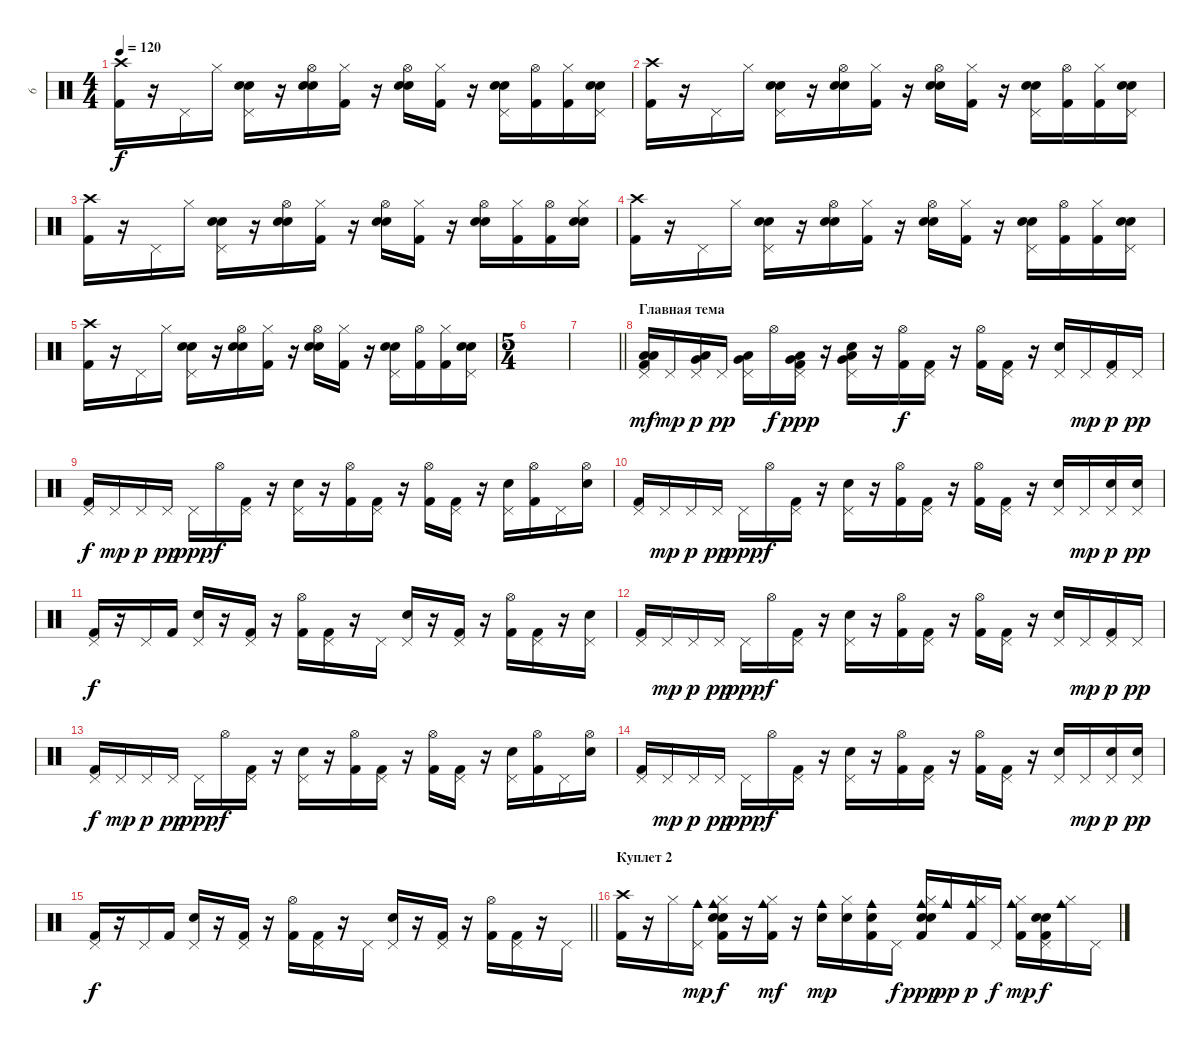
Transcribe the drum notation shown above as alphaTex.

\track ("6" "6") {instrument percussion}
\staff {score}
\articulation defaults
\ts (4 4)
\tempo 120
\clef neutral
\ks c
("Crash high (hit)" "Kick (hit) 2").16{dy f} r.16 "Pedal Hi-Hat (hit)".16 "Hi-Hat (closed)".16 ("Pedal Hi-Hat (hit)" "Snare (hit)" "Snare (hit) 2").16 r.16 ("Hi-Hat (open)" "Snare (hit)" "Snare (hit) 2").16 ("Hi-Hat (closed)" "Kick (hit) 2").16 r.16 ("Hi-Hat (open)" "Snare (hit)" "Snare (hit) 2").16 ("Hi-Hat (closed)" "Kick (hit) 2").16 r.16 ("Pedal Hi-Hat (hit)" "Snare (hit)" "Snare (hit) 2").16 ("Hi-Hat (open)" "Kick (hit) 2").16 ("Hi-Hat (closed)" "Kick (hit) 2").16 ("Pedal Hi-Hat (hit)" "Snare (hit)" "Snare (hit) 2").16 |
("Crash high (hit)" "Kick (hit) 2").16 r.16 "Pedal Hi-Hat (hit)".16 "Hi-Hat (closed)".16 ("Pedal Hi-Hat (hit)" "Snare (hit)" "Snare (hit) 2").16 r.16 ("Hi-Hat (open)" "Snare (hit)" "Snare (hit) 2").16 ("Hi-Hat (closed)" "Kick (hit) 2").16 r.16 ("Hi-Hat (open)" "Snare (hit)" "Snare (hit) 2").16 ("Hi-Hat (closed)" "Kick (hit) 2").16 r.16 ("Pedal Hi-Hat (hit)" "Snare (hit)" "Snare (hit) 2").16 ("Hi-Hat (open)" "Kick (hit) 2").16 ("Hi-Hat (closed)" "Kick (hit) 2").16 ("Pedal Hi-Hat (hit)" "Snare (hit)" "Snare (hit) 2").16 |
("Crash high (hit)" "Kick (hit) 2").16 r.16 "Pedal Hi-Hat (hit)".16 "Hi-Hat (closed)".16 ("Pedal Hi-Hat (hit)" "Snare (hit)" "Snare (hit) 2").16 r.16 ("Hi-Hat (open)" "Snare (hit)" "Snare (hit) 2").16 ("Hi-Hat (closed)" "Kick (hit) 2").16 r.16 ("Hi-Hat (open)" "Snare (hit)" "Snare (hit) 2").16 ("Hi-Hat (closed)" "Kick (hit) 2").16 r.16 ("Hi-Hat (open)" "Snare (hit)" "Snare (hit) 2").16 ("Hi-Hat (closed)" "Kick (hit) 2").16 ("Hi-Hat (open)" "Kick (hit) 2").16 ("Hi-Hat (closed)" "Snare (hit)" "Snare (hit) 2").16 |
("Crash high (hit)" "Kick (hit) 2").16 r.16 "Pedal Hi-Hat (hit)".16 "Hi-Hat (closed)".16 ("Pedal Hi-Hat (hit)" "Snare (hit)" "Snare (hit) 2").16 r.16 ("Hi-Hat (open)" "Snare (hit)" "Snare (hit) 2").16 ("Hi-Hat (closed)" "Kick (hit) 2").16 r.16 ("Hi-Hat (open)" "Snare (hit)" "Snare (hit) 2").16 ("Hi-Hat (closed)" "Kick (hit) 2").16 r.16 ("Pedal Hi-Hat (hit)" "Snare (hit)" "Snare (hit) 2").16 ("Hi-Hat (open)" "Kick (hit) 2").16 ("Hi-Hat (closed)" "Kick (hit) 2").16 ("Pedal Hi-Hat (hit)" "Snare (hit)" "Snare (hit) 2").16 |
("Crash high (hit)" "Kick (hit) 2").16 r.16 "Pedal Hi-Hat (hit)".16 "Hi-Hat (closed)".16 ("Pedal Hi-Hat (hit)" "Snare (hit)" "Snare (hit) 2").16 r.16 ("Hi-Hat (open)" "Snare (hit)" "Snare (hit) 2").16 ("Hi-Hat (closed)" "Kick (hit) 2").16 r.16 ("Hi-Hat (open)" "Snare (hit)" "Snare (hit) 2").16 ("Hi-Hat (closed)" "Kick (hit) 2").16 r.16 ("Pedal Hi-Hat (hit)" "Snare (hit)" "Snare (hit) 2").16 ("Hi-Hat (open)" "Kick (hit) 2").16 ("Hi-Hat (closed)" "Kick (hit) 2").16 ("Pedal Hi-Hat (hit)" "Snare (hit)" "Snare (hit) 2").16 |
\ts (5 4)
|
\barLineRight lightlight
|
\section ("" "Главная тема")
("Pedal Hi-Hat (hit)" "Low Floor Tom (hit)" "Low Tom (hit)" "Kick (hit) 2").16{dy mf volume 14} "Pedal Hi-Hat (hit)".16{dy mp} ("Pedal Hi-Hat (hit)" "Low Floor Tom (hit)" "Very Low Tom (hit)").16{dy p} "Pedal Hi-Hat (hit)".16{dy pp} ("Pedal Hi-Hat (hit)" "Low Floor Tom (hit)" "Very Low Tom (hit)").16 "Hi-Hat (open)".16{dy f} ("Pedal Hi-Hat (hit)" "Low Floor Tom (hit)" "Very Low Tom (hit)" "Kick (hit) 2").16{dy ppp} r.16 ("Pedal Hi-Hat (hit)" "Low Floor Tom (hit)" "Very Low Tom (hit)" "Snare (hit) 2").16 r.16 ("Hi-Hat (open)" "Kick (hit) 2").16{dy f} ("Pedal Hi-Hat (hit)" "Kick (hit) 2").16 r.16 ("Hi-Hat (open)" "Kick (hit) 2").16 ("Pedal Hi-Hat (hit)" "Kick (hit) 2").16 r.16 ("Pedal Hi-Hat (hit)" "Snare (hit) 2").16 "Pedal Hi-Hat (hit)".16{dy mp} ("Pedal Hi-Hat (hit)" "Kick (hit) 2").16{dy p} "Pedal Hi-Hat (hit)".16{dy pp} |
("Pedal Hi-Hat (hit)" "Kick (hit) 2").16{dy f} "Pedal Hi-Hat (hit)".16{dy mp} "Pedal Hi-Hat (hit)".16{dy p} "Pedal Hi-Hat (hit)".16{dy pp} "Pedal Hi-Hat (hit)".16{dy ppp} "Hi-Hat (open)".16{dy f} ("Pedal Hi-Hat (hit)" "Kick (hit) 2").16 r.16 ("Pedal Hi-Hat (hit)" "Snare (hit) 2").16 r.16 ("Hi-Hat (open)" "Kick (hit) 2").16 ("Pedal Hi-Hat (hit)" "Kick (hit) 2").16 r.16 ("Hi-Hat (open)" "Kick (hit) 2").16 ("Pedal Hi-Hat (hit)" "Kick (hit) 2").16 r.16 ("Pedal Hi-Hat (hit)" "Snare (hit) 2").16 ("Hi-Hat (open)" "Kick (hit) 2").16 "Pedal Hi-Hat (hit)".16 ("Hi-Hat (open)" "Snare (hit) 2").16 |
("Pedal Hi-Hat (hit)" "Kick (hit) 2").16 "Pedal Hi-Hat (hit)".16{dy mp} "Pedal Hi-Hat (hit)".16{dy p} "Pedal Hi-Hat (hit)".16{dy pp} "Pedal Hi-Hat (hit)".16{dy ppp} "Hi-Hat (open)".16{dy f} ("Pedal Hi-Hat (hit)" "Kick (hit) 2").16 r.16 ("Pedal Hi-Hat (hit)" "Snare (hit) 2").16 r.16 ("Hi-Hat (open)" "Kick (hit) 2").16 ("Pedal Hi-Hat (hit)" "Kick (hit) 2").16 r.16 ("Hi-Hat (open)" "Kick (hit) 2").16 ("Pedal Hi-Hat (hit)" "Kick (hit) 2").16 r.16 ("Pedal Hi-Hat (hit)" "Snare (hit) 2").16 "Pedal Hi-Hat (hit)".16{dy mp} ("Pedal Hi-Hat (hit)" "Snare (hit) 2").16{dy p} ("Pedal Hi-Hat (hit)" "Snare (hit) 2").16{dy pp} |
("Pedal Hi-Hat (hit)" "Kick (hit) 2").16{dy f} r.16 "Pedal Hi-Hat (hit)".16 "Kick (hit) 2".16 ("Pedal Hi-Hat (hit)" "Snare (hit) 2").16 r.16 ("Pedal Hi-Hat (hit)" "Kick (hit) 2").16 r.16 ("Hi-Hat (open)" "Kick (hit) 2").16 ("Pedal Hi-Hat (hit)" "Kick (hit) 2").16 r.16 "Pedal Hi-Hat (hit)".16 ("Pedal Hi-Hat (hit)" "Snare (hit) 2").16 r.16 ("Pedal Hi-Hat (hit)" "Kick (hit) 2").16 r.16 ("Hi-Hat (open)" "Kick (hit) 2").16 ("Pedal Hi-Hat (hit)" "Kick (hit) 2").16 r.16 ("Pedal Hi-Hat (hit)" "Snare (hit) 2").16 |
("Pedal Hi-Hat (hit)" "Kick (hit) 2").16 "Pedal Hi-Hat (hit)".16{dy mp} "Pedal Hi-Hat (hit)".16{dy p} "Pedal Hi-Hat (hit)".16{dy pp} "Pedal Hi-Hat (hit)".16{dy ppp} "Hi-Hat (open)".16{dy f} ("Pedal Hi-Hat (hit)" "Kick (hit) 2").16 r.16 ("Pedal Hi-Hat (hit)" "Snare (hit) 2").16 r.16 ("Hi-Hat (open)" "Kick (hit) 2").16 ("Pedal Hi-Hat (hit)" "Kick (hit) 2").16 r.16 ("Hi-Hat (open)" "Kick (hit) 2").16 ("Pedal Hi-Hat (hit)" "Kick (hit) 2").16 r.16 ("Pedal Hi-Hat (hit)" "Snare (hit) 2").16 "Pedal Hi-Hat (hit)".16{dy mp} ("Pedal Hi-Hat (hit)" "Kick (hit) 2").16{dy p} "Pedal Hi-Hat (hit)".16{dy pp} |
("Pedal Hi-Hat (hit)" "Kick (hit) 2").16{dy f} "Pedal Hi-Hat (hit)".16{dy mp} "Pedal Hi-Hat (hit)".16{dy p} "Pedal Hi-Hat (hit)".16{dy pp} "Pedal Hi-Hat (hit)".16{dy ppp} "Hi-Hat (open)".16{dy f} ("Pedal Hi-Hat (hit)" "Kick (hit) 2").16 r.16 ("Pedal Hi-Hat (hit)" "Snare (hit) 2").16 r.16 ("Hi-Hat (open)" "Kick (hit) 2").16 ("Pedal Hi-Hat (hit)" "Kick (hit) 2").16 r.16 ("Hi-Hat (open)" "Kick (hit) 2").16 ("Pedal Hi-Hat (hit)" "Kick (hit) 2").16 r.16 ("Pedal Hi-Hat (hit)" "Snare (hit) 2").16 ("Hi-Hat (open)" "Kick (hit) 2").16 "Pedal Hi-Hat (hit)".16 ("Hi-Hat (open)" "Snare (hit) 2").16 |
("Pedal Hi-Hat (hit)" "Kick (hit) 2").16 "Pedal Hi-Hat (hit)".16{dy mp} "Pedal Hi-Hat (hit)".16{dy p} "Pedal Hi-Hat (hit)".16{dy pp} "Pedal Hi-Hat (hit)".16{dy ppp} "Hi-Hat (open)".16{dy f} ("Pedal Hi-Hat (hit)" "Kick (hit) 2").16 r.16 ("Pedal Hi-Hat (hit)" "Snare (hit) 2").16 r.16 ("Hi-Hat (open)" "Kick (hit) 2").16 ("Pedal Hi-Hat (hit)" "Kick (hit) 2").16 r.16 ("Hi-Hat (open)" "Kick (hit) 2").16 ("Pedal Hi-Hat (hit)" "Kick (hit) 2").16 r.16 ("Pedal Hi-Hat (hit)" "Snare (hit) 2").16 "Pedal Hi-Hat (hit)".16{dy mp} ("Pedal Hi-Hat (hit)" "Snare (hit) 2").16{dy p} ("Pedal Hi-Hat (hit)" "Snare (hit) 2").16{dy pp} |
\barLineRight lightlight
("Pedal Hi-Hat (hit)" "Kick (hit) 2").16{dy f} r.16 "Pedal Hi-Hat (hit)".16 "Kick (hit) 2".16 ("Pedal Hi-Hat (hit)" "Snare (hit) 2").16 r.16 ("Pedal Hi-Hat (hit)" "Kick (hit) 2").16 r.16 ("Hi-Hat (open)" "Kick (hit) 2").16 ("Pedal Hi-Hat (hit)" "Kick (hit) 2").16 r.16 "Pedal Hi-Hat (hit)".16 ("Pedal Hi-Hat (hit)" "Snare (hit) 2").16 r.16 ("Pedal Hi-Hat (hit)" "Kick (hit) 2").16 r.16 ("Hi-Hat (open)" "Kick (hit) 2").16 ("Pedal Hi-Hat (hit)" "Kick (hit) 2").16 r.16 "Pedal Hi-Hat (hit)".16 |
\section ("" "Куплет 2")
("Crash high (hit)" "Kick (hit) 2").16 r.16 "Hi-Hat (closed)".16 ("Pedal Hi-Hat (hit)" "Cowbell medium (hit)").16{dy mp} ("Hi-Hat (closed)" "Cowbell medium (hit)" "Kick (hit) 2" "Snare (hit)" "Snare (hit) 2").16{dy f} r.16 ("Hi-Hat (closed)" "Cowbell medium (hit)" "Kick (hit) 2").16{dy mf} r.16 ("Cowbell medium (hit)" "Snare (hit) 2").16{dy mp} ("Hi-Hat (closed)" "Snare (hit) 2").16 ("Cowbell medium (hit)" "Snare (hit) 2" "Kick (hit) 2").16 "Pedal Hi-Hat (hit)".16{dy f} ("Hi-Hat (closed)" "Cowbell medium (hit)" "Kick (hit) 2" "Snare (hit)" "Snare (hit) 2").16{dy ppp} "Cowbell medium (hit)".16{dy pp} ("Hi-Hat (closed)" "Cowbell medium (hit)" "Kick (hit) 2").16{dy p} "Pedal Hi-Hat (hit)".16{dy f} ("Hi-Hat (closed)" "Cowbell medium (hit)" "Kick (hit) 2").16{dy mp} ("Pedal Hi-Hat (hit)" "Kick (hit) 2" "Snare (hit)" "Snare (hit) 2").16{dy f} ("Hi-Hat (closed)" "Cowbell medium (hit)").16 "Pedal Hi-Hat (hit)".16
